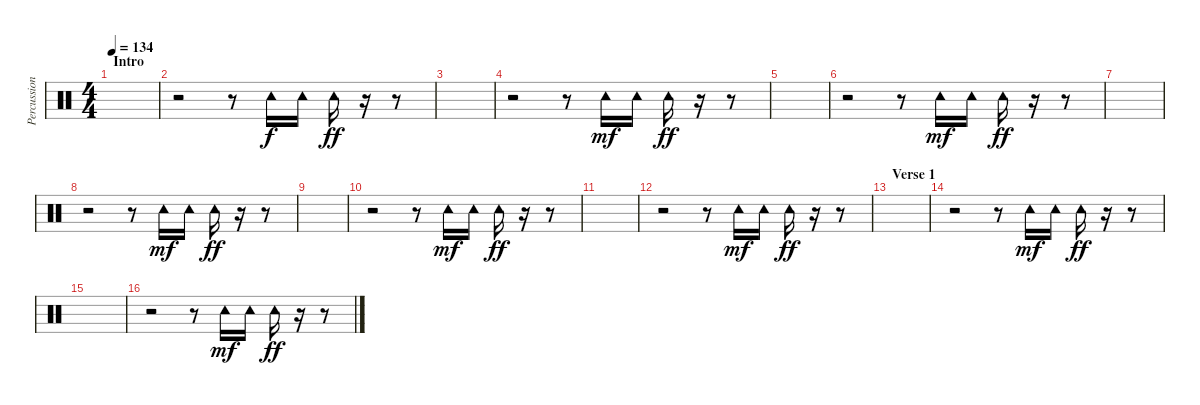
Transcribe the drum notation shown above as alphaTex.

\track ("Percussion" "Percussion") {instrument percussion}
\staff {score}
\articulation defaults
\ts (4 4)
\section ("" "Intro")
\tempo 134
\clef neutral
\ks c
|
r.2 r.8 "Tambourine (hit)".16 "Tambourine (hit)".16 "Tambourine (hit)".16{dy ff} r.16 r.8 |
|
r.2 r.8 "Tambourine (hit)".16{dy mf} "Tambourine (hit)".16 "Tambourine (hit)".16{dy ff} r.16 r.8 |
|
r.2 r.8 "Tambourine (hit)".16{dy mf} "Tambourine (hit)".16 "Tambourine (hit)".16{dy ff} r.16 r.8 |
|
r.2 r.8 "Tambourine (hit)".16{dy mf} "Tambourine (hit)".16 "Tambourine (hit)".16{dy ff} r.16 r.8 |
|
r.2 r.8 "Tambourine (hit)".16{dy mf} "Tambourine (hit)".16 "Tambourine (hit)".16{dy ff} r.16 r.8 |
|
r.2 r.8 "Tambourine (hit)".16{dy mf} "Tambourine (hit)".16 "Tambourine (hit)".16{dy ff} r.16 r.8 |
\section ("" "Verse 1")
|
r.2 r.8 "Tambourine (hit)".16{dy mf} "Tambourine (hit)".16 "Tambourine (hit)".16{dy ff} r.16 r.8 |
|
r.2 r.8 "Tambourine (hit)".16{dy mf} "Tambourine (hit)".16 "Tambourine (hit)".16{dy ff} r.16 r.8
